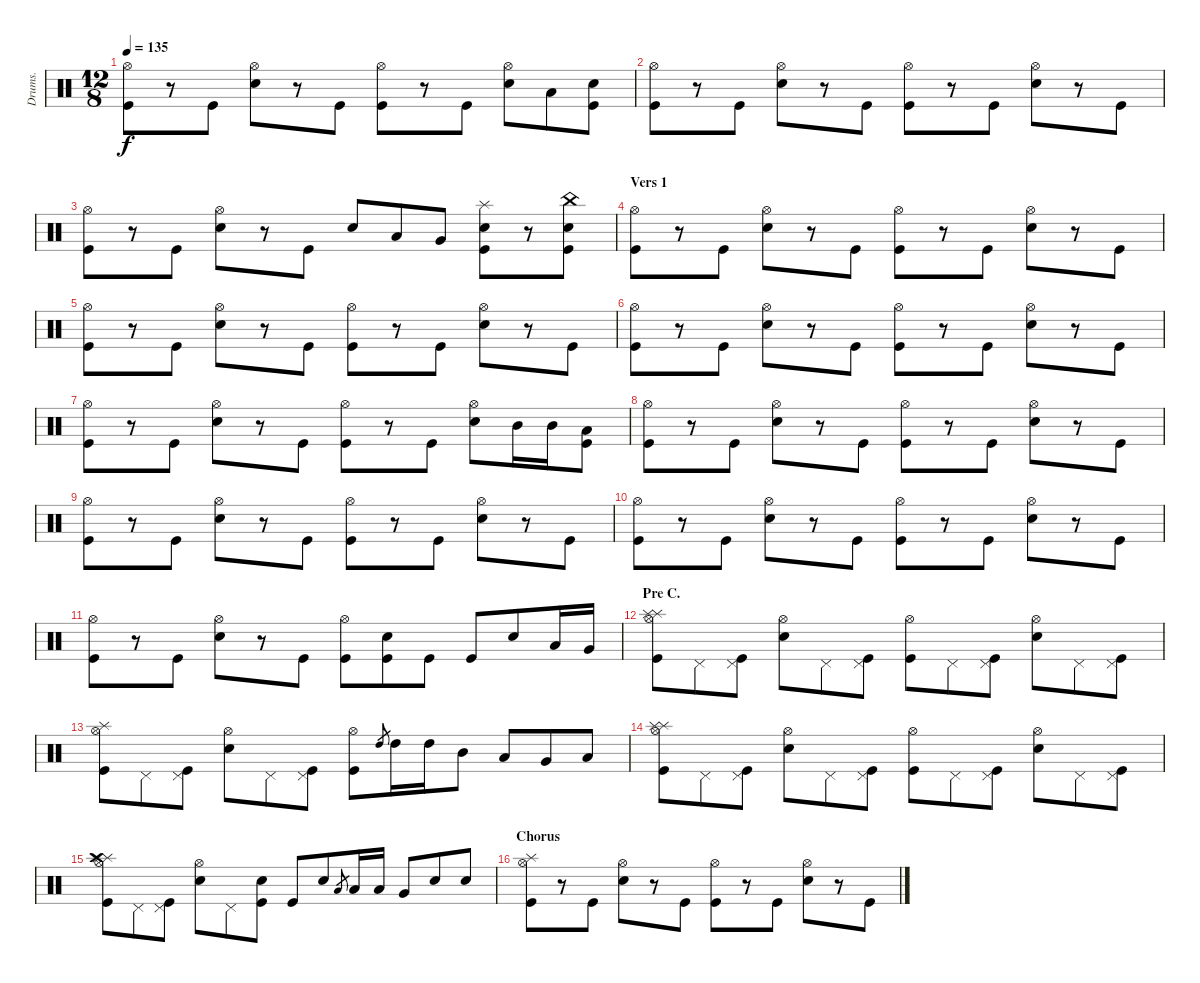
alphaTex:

\track ("Drums." "Drums.") {instrument percussion}
\staff {score}
\articulation defaults
\ts (12 8)
\tempo 135
\clef neutral
\ks c
("Hi-Hat (open)" "Kick (hit)").8{dy f} r.8 "Kick (hit)".8 ("Hi-Hat (open)" "Snare (hit) 2").8 r.8 "Kick (hit)".8 ("Hi-Hat (open)" "Kick (hit)").8 r.8 "Kick (hit)".8 ("Hi-Hat (open)" "Snare (hit) 2").8 "Low Tom (hit)".8 ("Snare (hit) 2" "Kick (hit)").8 |
("Hi-Hat (open)" "Kick (hit)").8 r.8 "Kick (hit)".8 ("Hi-Hat (open)" "Snare (hit) 2").8 r.8 "Kick (hit)".8 ("Hi-Hat (open)" "Kick (hit)").8 r.8 "Kick (hit)".8 ("Hi-Hat (open)" "Snare (hit) 2").8 r.8 "Kick (hit)".8 |
("Hi-Hat (open)" "Kick (hit)").8 r.8 "Kick (hit)".8 ("Hi-Hat (open)" "Snare (hit) 2").8 r.8 "Kick (hit)".8 "Snare (hit) 2".8 "Low Tom (hit)".8 "Very Low Tom (hit)".8 ("Splash (hit)" "Snare (hit) 2" "Kick (hit)").8 r.8 ("China (hit)" "Snare (hit) 2" "Kick (hit)").8 |
\section ("" "Vers 1")
("Hi-Hat (open)" "Kick (hit)").8 r.8 "Kick (hit)".8 ("Hi-Hat (open)" "Snare (hit) 2").8 r.8 "Kick (hit)".8 ("Hi-Hat (open)" "Kick (hit)").8 r.8 "Kick (hit)".8 ("Hi-Hat (open)" "Snare (hit) 2").8 r.8 "Kick (hit)".8 |
("Hi-Hat (open)" "Kick (hit)").8 r.8 "Kick (hit)".8 ("Hi-Hat (open)" "Snare (hit) 2").8 r.8 "Kick (hit)".8 ("Hi-Hat (open)" "Kick (hit)").8 r.8 "Kick (hit)".8 ("Hi-Hat (open)" "Snare (hit) 2").8 r.8 "Kick (hit)".8 |
("Hi-Hat (open)" "Kick (hit)").8 r.8 "Kick (hit)".8 ("Hi-Hat (open)" "Snare (hit) 2").8 r.8 "Kick (hit)".8 ("Hi-Hat (open)" "Kick (hit)").8 r.8 "Kick (hit)".8 ("Hi-Hat (open)" "Snare (hit) 2").8 r.8 "Kick (hit)".8 |
("Hi-Hat (open)" "Kick (hit)").8 r.8 "Kick (hit)".8 ("Hi-Hat (open)" "Snare (hit) 2").8 r.8 "Kick (hit)".8 ("Hi-Hat (open)" "Kick (hit)").8 r.8 "Kick (hit)".8 ("Hi-Hat (open)" "Snare (hit) 2").8 "Mid Tom (hit)".16 "Mid Tom (hit)".16 ("Low Tom (hit)" "Kick (hit)").8 |
("Hi-Hat (open)" "Kick (hit)").8 r.8 "Kick (hit)".8 ("Hi-Hat (open)" "Snare (hit) 2").8 r.8 "Kick (hit)".8 ("Hi-Hat (open)" "Kick (hit)").8 r.8 "Kick (hit)".8 ("Hi-Hat (open)" "Snare (hit) 2").8 r.8 "Kick (hit)".8 |
("Hi-Hat (open)" "Kick (hit)").8 r.8 "Kick (hit)".8 ("Hi-Hat (open)" "Snare (hit) 2").8 r.8 "Kick (hit)".8 ("Hi-Hat (open)" "Kick (hit)").8 r.8 "Kick (hit)".8 ("Hi-Hat (open)" "Snare (hit) 2").8 r.8 "Kick (hit)".8 |
("Hi-Hat (open)" "Kick (hit)").8 r.8 "Kick (hit)".8 ("Hi-Hat (open)" "Snare (hit) 2").8 r.8 "Kick (hit)".8 ("Hi-Hat (open)" "Kick (hit)").8 r.8 "Kick (hit)".8 ("Hi-Hat (open)" "Snare (hit) 2").8 r.8 "Kick (hit)".8 |
("Hi-Hat (open)" "Kick (hit)").8 r.8 "Kick (hit)".8 ("Hi-Hat (open)" "Snare (hit) 2").8 r.8 "Kick (hit)".8 ("Hi-Hat (open)" "Kick (hit)").8 ("Snare (hit) 2" "Kick (hit)").8 "Kick (hit)".8 "Kick (hit)".8 "Snare (hit) 2".8 "Low Tom (hit)".16 "Very Low Tom (hit)".16 |
\section ("" "Pre C.")
("Hi-Hat (open)" "Splash (hit)" "Splash (hit)" "Kick (hit)").8 "Pedal Hi-Hat (hit)".8 ("Pedal Hi-Hat (hit)" "Kick (hit)").8 ("Hi-Hat (open)" "Snare (hit) 2").8 "Pedal Hi-Hat (hit)".8 ("Pedal Hi-Hat (hit)" "Kick (hit)").8 ("Hi-Hat (open)" "Kick (hit)").8 "Pedal Hi-Hat (hit)".8 ("Pedal Hi-Hat (hit)" "Kick (hit)").8 ("Hi-Hat (open)" "Snare (hit) 2").8 "Pedal Hi-Hat (hit)".8 ("Pedal Hi-Hat (hit)" "Kick (hit)").8 |
("Hi-Hat (open)" "Splash (hit)" "Kick (hit)").8 "Pedal Hi-Hat (hit)".8 ("Pedal Hi-Hat (hit)" "Kick (hit)").8 ("Hi-Hat (open)" "Snare (hit) 2").8 "Pedal Hi-Hat (hit)".8 ("Pedal Hi-Hat (hit)" "Kick (hit)").8 ("Hi-Hat (open)" "Kick (hit)").8 "High Tom (hit)".8{gr} "High Tom (hit)".16 "High Tom (hit)".16 "Mid Tom (hit)".8 "Low Tom (hit)".8 "Very Low Tom (hit)".8 "Low Floor Tom (hit)".8 |
("Hi-Hat (open)" "Splash (hit)" "Splash (hit)" "Kick (hit)").8 "Pedal Hi-Hat (hit)".8 ("Pedal Hi-Hat (hit)" "Kick (hit)").8 ("Hi-Hat (open)" "Snare (hit) 2").8 "Pedal Hi-Hat (hit)".8 ("Pedal Hi-Hat (hit)" "Kick (hit)").8 ("Hi-Hat (open)" "Kick (hit)").8 "Pedal Hi-Hat (hit)".8 ("Pedal Hi-Hat (hit)" "Kick (hit)").8 ("Hi-Hat (open)" "Snare (hit) 2").8 "Pedal Hi-Hat (hit)".8 ("Pedal Hi-Hat (hit)" "Kick (hit)").8 |
("Hi-Hat (open)" "Splash (hit)" "Splash (hit)" "Crash high (hit)" "Kick (hit)").8 "Pedal Hi-Hat (hit)".8 ("Pedal Hi-Hat (hit)" "Kick (hit)").8 ("Hi-Hat (open)" "Snare (hit) 2").8 "Pedal Hi-Hat (hit)".8 ("Snare (hit) 2" "Kick (hit)").8 "Kick (hit)".8 "Snare (hit) 2".8 "Low Tom (hit)".8{gr} "Low Tom (hit)".16 "Low Tom (hit)".16 "Very Low Tom (hit)".8 "Snare (hit) 2".8 "Snare (hit) 2".8 |
\section ("" "Chorus")
("Hi-Hat (open)" "Splash (hit)" "Kick (hit)").8 r.8 "Kick (hit)".8 ("Hi-Hat (open)" "Snare (hit) 2").8 r.8 "Kick (hit)".8 ("Hi-Hat (open)" "Kick (hit)").8 r.8 "Kick (hit)".8 ("Hi-Hat (open)" "Snare (hit) 2").8 r.8 "Kick (hit)".8
